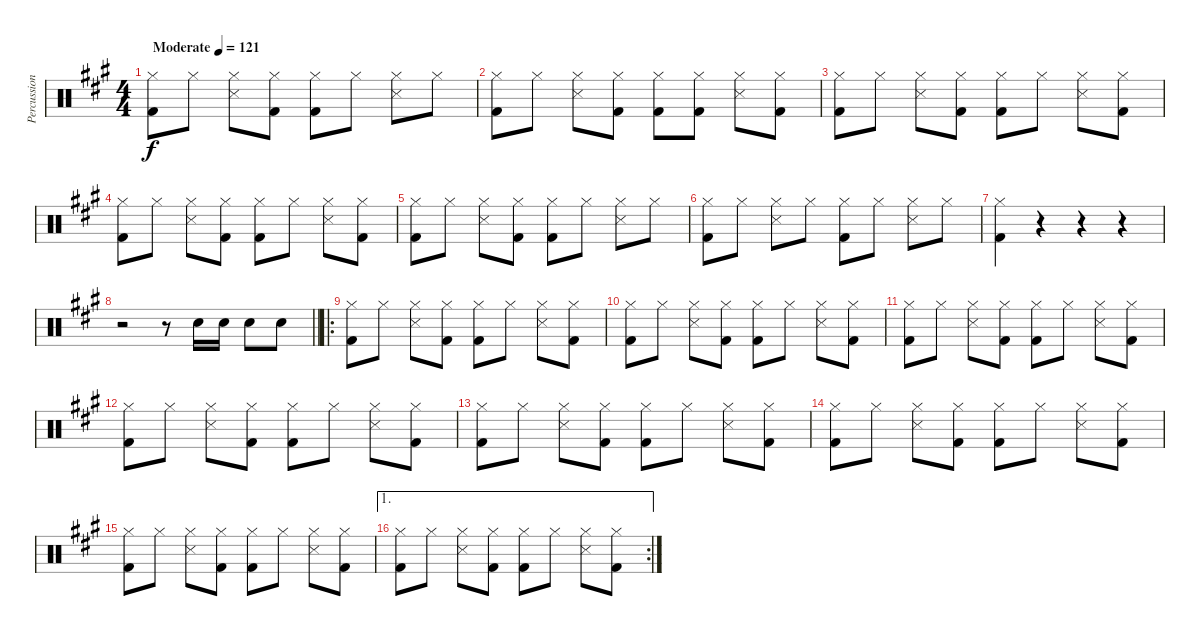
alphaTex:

\track ("Percussion" "Percussion") {instrument percussion}
\staff {score}
\articulation defaults
\ts (4 4)
\tempo (121 "Moderate")
\clef neutral
\ks a
("Hi-Hat (closed)" "Kick (hit) 2").8{dy f} "Hi-Hat (closed)".8 ("Hi-Hat (closed)" "Snare (side stick) 3").8 ("Hi-Hat (closed)" "Kick (hit) 2").8 ("Hi-Hat (closed)" "Kick (hit) 2").8 "Hi-Hat (closed)".8 ("Hi-Hat (closed)" "Snare (side stick) 3").8 "Hi-Hat (closed)".8 |
("Hi-Hat (closed)" "Kick (hit) 2").8 "Hi-Hat (closed)".8 ("Hi-Hat (closed)" "Snare (side stick) 3").8 ("Hi-Hat (closed)" "Kick (hit) 2").8 ("Hi-Hat (closed)" "Kick (hit) 2").8 ("Hi-Hat (closed)" "Kick (hit) 2").8 ("Hi-Hat (closed)" "Snare (side stick) 3").8 ("Hi-Hat (closed)" "Kick (hit) 2").8 |
("Hi-Hat (closed)" "Kick (hit) 2").8 "Hi-Hat (closed)".8 ("Hi-Hat (closed)" "Snare (side stick) 3").8 ("Hi-Hat (closed)" "Kick (hit) 2").8 ("Hi-Hat (closed)" "Kick (hit) 2").8 "Hi-Hat (closed)".8 ("Hi-Hat (closed)" "Snare (side stick) 3").8 ("Hi-Hat (closed)" "Kick (hit) 2").8 |
("Hi-Hat (closed)" "Kick (hit) 2").8 "Hi-Hat (closed)".8 ("Hi-Hat (closed)" "Snare (side stick) 3").8 ("Hi-Hat (closed)" "Kick (hit) 2").8 ("Hi-Hat (closed)" "Kick (hit) 2").8 "Hi-Hat (closed)".8 ("Hi-Hat (closed)" "Snare (side stick) 3").8 ("Hi-Hat (closed)" "Kick (hit) 2").8 |
("Hi-Hat (closed)" "Kick (hit) 2").8 "Hi-Hat (closed)".8 ("Hi-Hat (closed)" "Snare (side stick) 3").8 ("Hi-Hat (closed)" "Kick (hit) 2").8 ("Hi-Hat (closed)" "Kick (hit) 2").8 "Hi-Hat (closed)".8 ("Hi-Hat (closed)" "Snare (side stick) 3").8 "Hi-Hat (closed)".8 |
("Hi-Hat (closed)" "Kick (hit) 2").8 "Hi-Hat (closed)".8 ("Hi-Hat (closed)" "Snare (side stick) 3").8 "Hi-Hat (closed)".8 ("Hi-Hat (closed)" "Kick (hit) 2").8 "Hi-Hat (closed)".8 ("Hi-Hat (closed)" "Snare (side stick) 3").8 "Hi-Hat (closed)".8 |
("Hi-Hat (closed)" "Kick (hit) 2").4 r.4 r.4 r.4 |
\barLineRight lightlight
r.2 r.8 "Snare (hit) 2".16 "Snare (hit) 2".16 "Snare (hit) 2".8 "Snare (hit) 2".8 |
\ro
("Hi-Hat (closed)" "Kick (hit) 2").8 "Hi-Hat (closed)".8 ("Hi-Hat (closed)" "Snare (side stick) 3").8 ("Hi-Hat (closed)" "Kick (hit) 2").8 ("Hi-Hat (closed)" "Kick (hit) 2").8 "Hi-Hat (closed)".8 ("Hi-Hat (closed)" "Snare (side stick) 3").8 ("Hi-Hat (closed)" "Kick (hit) 2").8 |
("Hi-Hat (closed)" "Kick (hit) 2").8 "Hi-Hat (closed)".8 ("Hi-Hat (closed)" "Snare (side stick) 3").8 ("Hi-Hat (closed)" "Kick (hit) 2").8 ("Hi-Hat (closed)" "Kick (hit) 2").8 "Hi-Hat (closed)".8 ("Hi-Hat (closed)" "Snare (side stick) 3").8 ("Hi-Hat (closed)" "Kick (hit) 2").8 |
("Hi-Hat (closed)" "Kick (hit) 2").8 "Hi-Hat (closed)".8 ("Hi-Hat (closed)" "Snare (side stick) 3").8 ("Hi-Hat (closed)" "Kick (hit) 2").8 ("Hi-Hat (closed)" "Kick (hit) 2").8 "Hi-Hat (closed)".8 ("Hi-Hat (closed)" "Snare (side stick) 3").8 ("Hi-Hat (closed)" "Kick (hit) 2").8 |
("Hi-Hat (closed)" "Kick (hit) 2").8 "Hi-Hat (closed)".8 ("Hi-Hat (closed)" "Snare (side stick) 3").8 ("Hi-Hat (closed)" "Kick (hit) 2").8 ("Hi-Hat (closed)" "Kick (hit) 2").8 "Hi-Hat (closed)".8 ("Hi-Hat (closed)" "Snare (side stick) 3").8 ("Hi-Hat (closed)" "Kick (hit) 2").8 |
("Hi-Hat (closed)" "Kick (hit) 2").8 "Hi-Hat (closed)".8 ("Hi-Hat (closed)" "Snare (side stick) 3").8 ("Hi-Hat (closed)" "Kick (hit) 2").8 ("Hi-Hat (closed)" "Kick (hit) 2").8 "Hi-Hat (closed)".8 ("Hi-Hat (closed)" "Snare (side stick) 3").8 ("Hi-Hat (closed)" "Kick (hit) 2").8 |
("Hi-Hat (closed)" "Kick (hit) 2").8 "Hi-Hat (closed)".8 ("Hi-Hat (closed)" "Snare (side stick) 3").8 ("Hi-Hat (closed)" "Kick (hit) 2").8 ("Hi-Hat (closed)" "Kick (hit) 2").8 "Hi-Hat (closed)".8 ("Hi-Hat (closed)" "Snare (side stick) 3").8 ("Hi-Hat (closed)" "Kick (hit) 2").8 |
("Hi-Hat (closed)" "Kick (hit) 2").8 "Hi-Hat (closed)".8 ("Hi-Hat (closed)" "Snare (side stick) 3").8 ("Hi-Hat (closed)" "Kick (hit) 2").8 ("Hi-Hat (closed)" "Kick (hit) 2").8 "Hi-Hat (closed)".8 ("Hi-Hat (closed)" "Snare (side stick) 3").8 ("Hi-Hat (closed)" "Kick (hit) 2").8 |
\ae 1
\rc 2
("Hi-Hat (closed)" "Kick (hit) 2").8 "Hi-Hat (closed)".8 ("Hi-Hat (closed)" "Snare (side stick) 3").8 ("Hi-Hat (closed)" "Kick (hit) 2").8 ("Hi-Hat (closed)" "Kick (hit) 2").8 "Hi-Hat (closed)".8 ("Hi-Hat (closed)" "Snare (side stick) 3").8 ("Hi-Hat (closed)" "Kick (hit) 2").8
